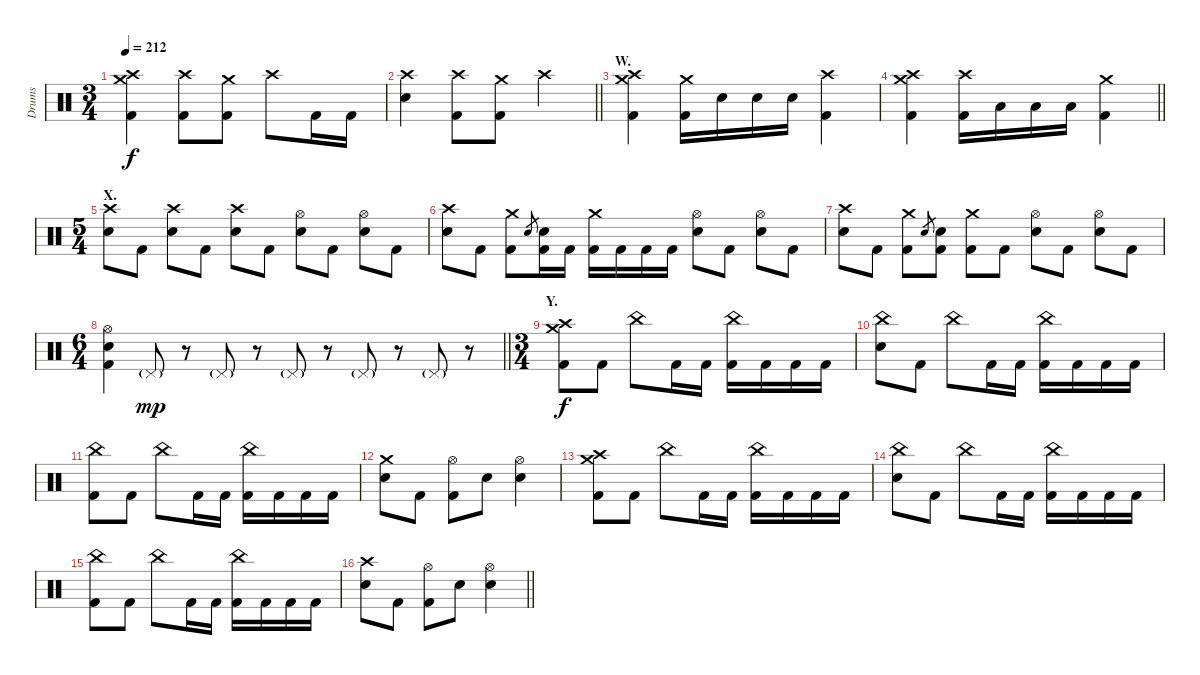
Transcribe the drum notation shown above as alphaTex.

\track ("Drums" "Drums") {instrument percussion}
\staff {score}
\articulation defaults
\ts (3 4)
\tempo 212
\clef neutral
\ks c
("Crash medium (hit)" "Crash high (hit)" "Kick (hit) 2").4{dy f} ("Crash high (hit)" "Kick (hit) 2").8 ("Crash medium (hit)" "Kick (hit) 2").8 "Crash high (hit)".8 "Kick (hit) 2".16 "Kick (hit) 2".16 |
\barLineRight lightlight
("Crash high (hit)" "Electric Snare (hit)").4 ("Crash high (hit)" "Kick (hit) 2").8 ("Crash medium (hit)" "Kick (hit) 2").8 "Crash high (hit)".4 |
\section ("" "W.")
("Crash medium (hit)" "Crash high (hit)" "Kick (hit) 2").4 ("Crash medium (hit)" "Kick (hit) 2").16 "Electric Snare (hit)".16 "Electric Snare (hit)".16 "Electric Snare (hit)".16 ("Crash high (hit)" "Kick (hit) 2").4 |
\barLineRight lightlight
("Crash medium (hit)" "Crash high (hit)" "Kick (hit) 2").4 ("Crash high (hit)" "Kick (hit) 2").16 "Low Tom (hit)".16 "Low Tom (hit)".16 "Low Tom (hit)".16 ("Crash medium (hit)" "Kick (hit) 2").4 |
\ts (5 4)
\section ("" "X.")
("Crash high (hit)" "Electric Snare (hit)").8 "Kick (hit) 2".8 ("Crash high (hit)" "Electric Snare (hit)").8 "Kick (hit) 2".8 ("Crash high (hit)" "Electric Snare (hit)").8 "Kick (hit) 2".8 ("Hi-Hat (open)" "Electric Snare (hit)").8 "Kick (hit) 2".8 ("Hi-Hat (open)" "Electric Snare (hit)").8 "Kick (hit) 2".8 |
("Crash high (hit)" "Electric Snare (hit)").8 "Kick (hit) 2".8 ("Crash medium (hit)" "Kick (hit) 2").8 "Electric Snare (hit)".8{gr} ("Electric Snare (hit)" "Kick (hit) 2").16 "Kick (hit) 2".16 ("Crash medium (hit)" "Kick (hit) 2").16 "Kick (hit) 2".16 "Kick (hit) 2".16 "Kick (hit) 2".16 ("Hi-Hat (open)" "Electric Snare (hit)").8 "Kick (hit) 2".8 ("Hi-Hat (open)" "Electric Snare (hit)").8 "Kick (hit) 2".8 |
("Crash high (hit)" "Electric Snare (hit)").8 "Kick (hit) 2".8 ("Crash medium (hit)" "Kick (hit) 2").8 "Electric Snare (hit)".8{gr} ("Electric Snare (hit)" "Kick (hit) 2").8 ("Crash medium (hit)" "Kick (hit) 2").8 "Kick (hit) 2".8 ("Hi-Hat (open)" "Electric Snare (hit)").8 "Kick (hit) 2".8 ("Hi-Hat (open)" "Electric Snare (hit)").8 "Kick (hit) 2".8 |
\ts (6 4)
\barLineRight lightlight
("Hi-Hat (open)" "Electric Snare (hit)" "Kick (hit) 2").4 "Pedal Hi-Hat (hit)"{g}.8{dy mp} r.8 "Pedal Hi-Hat (hit)"{g}.8 r.8 "Pedal Hi-Hat (hit)"{g}.8 r.8 "Pedal Hi-Hat (hit)"{g}.8 r.8 "Pedal Hi-Hat (hit)"{g}.8 r.8 |
\ts (3 4)
\section ("" "Y.")
("Crash medium (hit)" "Crash high (hit)" "Kick (hit) 2").8{dy f} "Kick (hit) 2".8 "China (hit)".8 "Kick (hit) 2".16 "Kick (hit) 2".16 ("China (hit)" "Kick (hit) 2").16 "Kick (hit) 2".16 "Kick (hit) 2".16 "Kick (hit) 2".16 |
("China (hit)" "Electric Snare (hit)").8 "Kick (hit) 2".8 "China (hit)".8 "Kick (hit) 2".16 "Kick (hit) 2".16 ("China (hit)" "Kick (hit) 2").16 "Kick (hit) 2".16 "Kick (hit) 2".16 "Kick (hit) 2".16 |
("China (hit)" "Kick (hit) 2").8 "Kick (hit) 2".8 "China (hit)".8 "Kick (hit) 2".16 "Kick (hit) 2".16 ("China (hit)" "Kick (hit) 2").16 "Kick (hit) 2".16 "Kick (hit) 2".16 "Kick (hit) 2".16 |
("Crash medium (hit)" "Electric Snare (hit)").8 "Kick (hit) 2".8 ("Hi-Hat (open)" "Kick (hit) 2").8 "Electric Snare (hit)".8 ("Hi-Hat (open)" "Electric Snare (hit)").4 |
("Crash medium (hit)" "Crash high (hit)" "Kick (hit) 2").8 "Kick (hit) 2".8 "China (hit)".8 "Kick (hit) 2".16 "Kick (hit) 2".16 ("China (hit)" "Kick (hit) 2").16 "Kick (hit) 2".16 "Kick (hit) 2".16 "Kick (hit) 2".16 |
("China (hit)" "Electric Snare (hit)").8 "Kick (hit) 2".8 "China (hit)".8 "Kick (hit) 2".16 "Kick (hit) 2".16 ("China (hit)" "Kick (hit) 2").16 "Kick (hit) 2".16 "Kick (hit) 2".16 "Kick (hit) 2".16 |
("China (hit)" "Kick (hit) 2").8 "Kick (hit) 2".8 "China (hit)".8 "Kick (hit) 2".16 "Kick (hit) 2".16 ("China (hit)" "Kick (hit) 2").16 "Kick (hit) 2".16 "Kick (hit) 2".16 "Kick (hit) 2".16 |
\barLineRight lightlight
("Crash high (hit)" "Electric Snare (hit)").8 "Kick (hit) 2".8 ("Hi-Hat (open)" "Kick (hit) 2").8 "Electric Snare (hit)".8 ("Hi-Hat (open)" "Electric Snare (hit)").4
